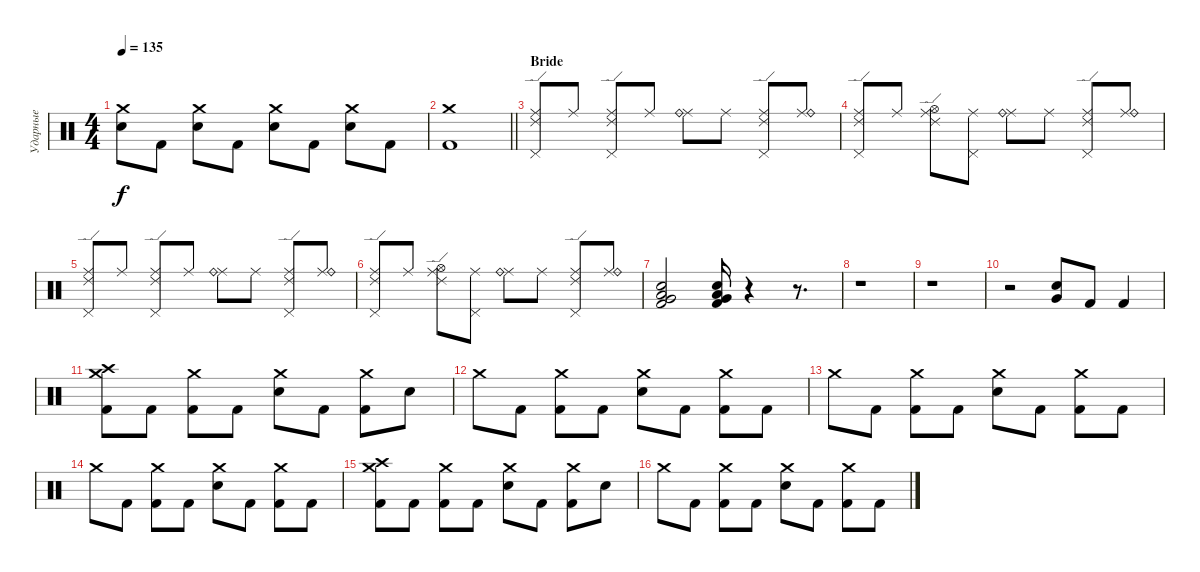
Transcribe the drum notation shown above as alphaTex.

\track ("Ударные" "Ударные") {instrument percussion}
\staff {score}
\articulation defaults
\ts (4 4)
\tempo 135
\clef neutral
\ks c
("Crash medium (hit)" "Electric Snare (hit)").8{dy f} "Kick (hit) 2".8 ("Crash medium (hit)" "Electric Snare (hit)").8 "Kick (hit) 2".8 ("Crash medium (hit)" "Electric Snare (hit)").8 "Kick (hit) 2".8 ("Crash medium (hit)" "Electric Snare (hit)").8 "Kick (hit) 2".8 |
\barLineRight lightlight
("Crash medium (hit)" "Kick (hit) 2").1 |
\section ("" "Bride")
("Ride (middle)" "Ride (edge) 2" "Pedal Hi-Hat (hit)").8 "Ride (middle)".8 ("Ride (middle)" "Ride (edge) 2" "Pedal Hi-Hat (hit)").8 "Ride (middle)".8 ("Ride (middle)" "Ride (bell)").8 "Ride (middle)".8 ("Ride (middle)" "Ride (edge) 2" "Pedal Hi-Hat (hit)").8 ("Ride (middle)" "Ride (bell)").8 |
("Ride (middle)" "Ride (edge) 2" "Pedal Hi-Hat (hit)").8 "Ride (middle)".8 ("Ride (middle)" "Ride (edge) 2" "Hi-Hat (open)").8 ("Ride (middle)" "Pedal Hi-Hat (hit)").8 ("Ride (middle)" "Ride (bell)").8 "Ride (middle)".8 ("Ride (middle)" "Ride (edge) 2" "Pedal Hi-Hat (hit)").8 ("Ride (middle)" "Ride (bell)").8 |
("Ride (middle)" "Ride (edge) 2" "Pedal Hi-Hat (hit)").8 "Ride (middle)".8 ("Ride (middle)" "Ride (edge) 2" "Pedal Hi-Hat (hit)").8 "Ride (middle)".8 ("Ride (middle)" "Ride (bell)").8 "Ride (middle)".8 ("Ride (middle)" "Ride (edge) 2" "Pedal Hi-Hat (hit)").8 ("Ride (middle)" "Ride (bell)").8 |
("Ride (middle)" "Ride (edge) 2" "Pedal Hi-Hat (hit)").8 "Ride (middle)".8 ("Ride (middle)" "Ride (edge) 2" "Hi-Hat (open)").8 ("Ride (middle)" "Pedal Hi-Hat (hit)").8 ("Ride (middle)" "Ride (bell)").8 "Ride (middle)".8 ("Ride (middle)" "Ride (edge) 2" "Pedal Hi-Hat (hit)").8 ("Ride (middle)" "Ride (bell)").8 |
("Electric Snare (hit)" "Low Tom (hit)" "Very Low Tom (hit)" "Kick (hit) 2").2 ("Electric Snare (hit)" "Low Tom (hit)" "Very Low Tom (hit)" "Kick (hit) 2").16 r.4 r.8{d} |
r.1 |
r.1 |
r.2 ("Electric Snare (hit)" "Very Low Tom (hit)").8 "Kick (hit) 2".8 "Kick (hit) 2".4 |
("Crash medium (hit)" "Crash high (hit)" "Kick (hit) 2").8 "Kick (hit) 2".8 ("Crash medium (hit)" "Kick (hit) 2").8 "Kick (hit) 2".8 ("Crash medium (hit)" "Electric Snare (hit)").8 "Kick (hit) 2".8 ("Crash medium (hit)" "Kick (hit) 2").8 "Electric Snare (hit)".8 |
"Crash medium (hit)".8 "Kick (hit) 2".8 ("Crash medium (hit)" "Kick (hit) 2").8 "Kick (hit) 2".8 ("Crash medium (hit)" "Electric Snare (hit)").8 "Kick (hit) 2".8 ("Crash medium (hit)" "Kick (hit) 2").8 "Kick (hit) 2".8 |
"Crash medium (hit)".8 "Kick (hit) 2".8 ("Crash medium (hit)" "Kick (hit) 2").8 "Kick (hit) 2".8 ("Crash medium (hit)" "Electric Snare (hit)").8 "Kick (hit) 2".8 ("Crash medium (hit)" "Kick (hit) 2").8 "Kick (hit) 2".8 |
"Crash medium (hit)".8 "Kick (hit) 2".8 ("Crash medium (hit)" "Kick (hit) 2").8 "Kick (hit) 2".8 ("Crash medium (hit)" "Electric Snare (hit)").8 "Kick (hit) 2".8 ("Crash medium (hit)" "Kick (hit) 2").8 "Kick (hit) 2".8 |
("Crash medium (hit)" "Crash high (hit)" "Kick (hit) 2").8 "Kick (hit) 2".8 ("Crash medium (hit)" "Kick (hit) 2").8 "Kick (hit) 2".8 ("Crash medium (hit)" "Electric Snare (hit)").8 "Kick (hit) 2".8 ("Crash medium (hit)" "Kick (hit) 2").8 "Electric Snare (hit)".8 |
"Crash medium (hit)".8 "Kick (hit) 2".8 ("Crash medium (hit)" "Kick (hit) 2").8 "Kick (hit) 2".8 ("Crash medium (hit)" "Electric Snare (hit)").8 "Kick (hit) 2".8 ("Crash medium (hit)" "Kick (hit) 2").8 "Kick (hit) 2".8
